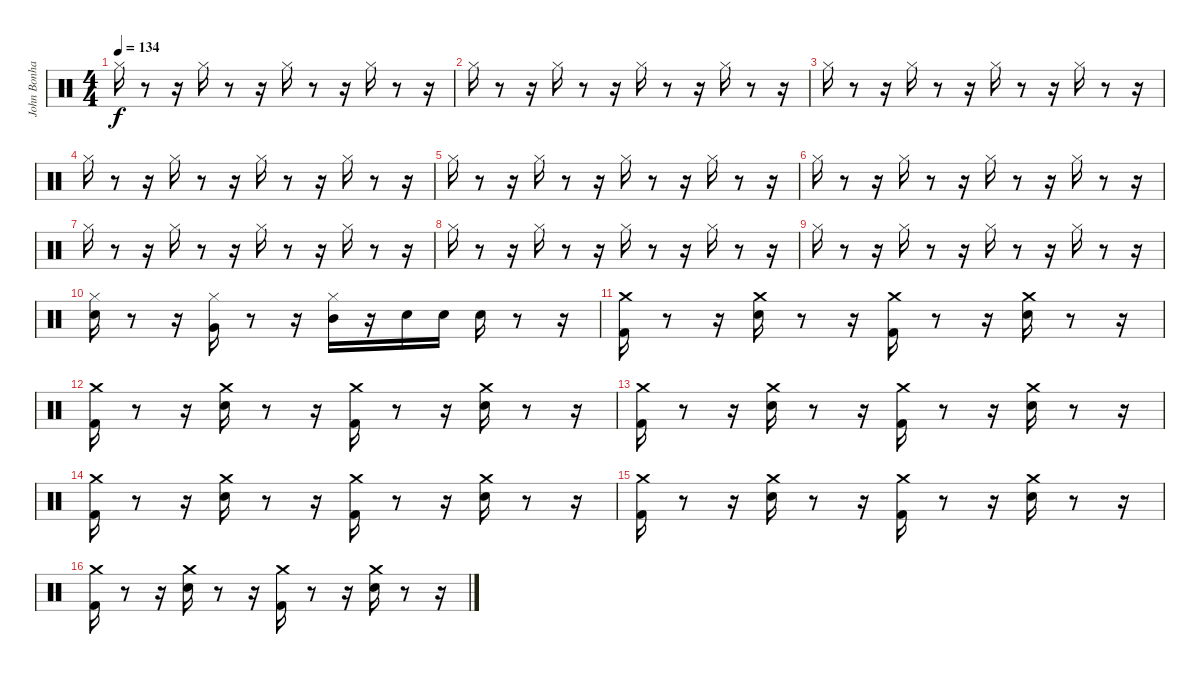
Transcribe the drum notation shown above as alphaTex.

\track ("John Bonham - Drums" "John Bonha") {instrument percussion}
\staff {score}
\articulation defaults
\ts (4 4)
\tempo 134
\clef neutral
\ks c "Hi-Hat (closed)".16{dy f}
r.8 r.16 "Hi-Hat (closed)".16 r.8 r.16 "Hi-Hat (closed)".16 r.8 r.16 "Hi-Hat (closed)".16 r.8 r.16 |
"Hi-Hat (closed)".16 r.8 r.16 "Hi-Hat (closed)".16 r.8 r.16 "Hi-Hat (closed)".16 r.8 r.16 "Hi-Hat (closed)".16 r.8 r.16 |
"Hi-Hat (closed)".16 r.8 r.16 "Hi-Hat (closed)".16 r.8 r.16 "Hi-Hat (closed)".16 r.8 r.16 "Hi-Hat (closed)".16 r.8 r.16 |
"Hi-Hat (closed)".16 r.8 r.16 "Hi-Hat (closed)".16 r.8 r.16 "Hi-Hat (closed)".16 r.8 r.16 "Hi-Hat (closed)".16 r.8 r.16 |
"Hi-Hat (closed)".16 r.8 r.16 "Hi-Hat (closed)".16 r.8 r.16 "Hi-Hat (closed)".16 r.8 r.16 "Hi-Hat (closed)".16 r.8 r.16 |
"Hi-Hat (closed)".16 r.8 r.16 "Hi-Hat (closed)".16 r.8 r.16 "Hi-Hat (closed)".16 r.8 r.16 "Hi-Hat (closed)".16 r.8 r.16 |
"Hi-Hat (closed)".16 r.8 r.16 "Hi-Hat (closed)".16 r.8 r.16 "Hi-Hat (closed)".16 r.8 r.16 "Hi-Hat (closed)".16 r.8 r.16 |
"Hi-Hat (closed)".16 r.8 r.16 "Hi-Hat (closed)".16 r.8 r.16 "Hi-Hat (closed)".16 r.8 r.16 "Hi-Hat (closed)".16 r.8 r.16 |
"Hi-Hat (closed)".16 r.8 r.16 "Hi-Hat (closed)".16 r.8 r.16 "Hi-Hat (closed)".16 r.8 r.16 "Hi-Hat (closed)".16 r.8 r.16 |
("Hi-Hat (closed)" "Electric Snare (hit)").16 r.8 r.16 ("Hi-Hat (closed)" "Very Low Tom (hit)").16 r.8 r.16 ("Hi-Hat (closed)" "Mid Tom (hit)").16 r.16 "Electric Snare (hit)".16 "Electric Snare (hit)".16 "Electric Snare (hit)".16 r.8 r.16 |
("Kick (hit) 2" "Crash medium (hit)").16 r.8 r.16 ("Snare (hit) 2" "Crash medium (hit)").16 r.8 r.16 ("Kick (hit) 2" "Crash medium (hit)").16 r.8 r.16 ("Snare (hit) 2" "Crash medium (hit)").16 r.8 r.16 |
("Kick (hit) 2" "Crash medium (hit)").16 r.8 r.16 ("Snare (hit) 2" "Crash medium (hit)").16 r.8 r.16 ("Kick (hit) 2" "Crash medium (hit)").16 r.8 r.16 ("Snare (hit) 2" "Crash medium (hit)").16 r.8 r.16 |
("Kick (hit) 2" "Crash medium (hit)").16 r.8 r.16 ("Snare (hit) 2" "Crash medium (hit)").16 r.8 r.16 ("Kick (hit) 2" "Crash medium (hit)").16 r.8 r.16 ("Snare (hit) 2" "Crash medium (hit)").16 r.8 r.16 |
("Kick (hit) 2" "Crash medium (hit)").16 r.8 r.16 ("Snare (hit) 2" "Crash medium (hit)").16 r.8 r.16 ("Kick (hit) 2" "Crash medium (hit)").16 r.8 r.16 ("Snare (hit) 2" "Crash medium (hit)").16 r.8 r.16 |
("Kick (hit) 2" "Crash medium (hit)").16 r.8 r.16 ("Snare (hit) 2" "Crash medium (hit)").16 r.8 r.16 ("Kick (hit) 2" "Crash medium (hit)").16 r.8 r.16 ("Snare (hit) 2" "Crash medium (hit)").16 r.8 r.16 |
("Kick (hit) 2" "Crash medium (hit)").16 r.8 r.16 ("Snare (hit) 2" "Crash medium (hit)").16 r.8 r.16 ("Kick (hit) 2" "Crash medium (hit)").16 r.8 r.16 ("Snare (hit) 2" "Crash medium (hit)").16 r.8 r.16
